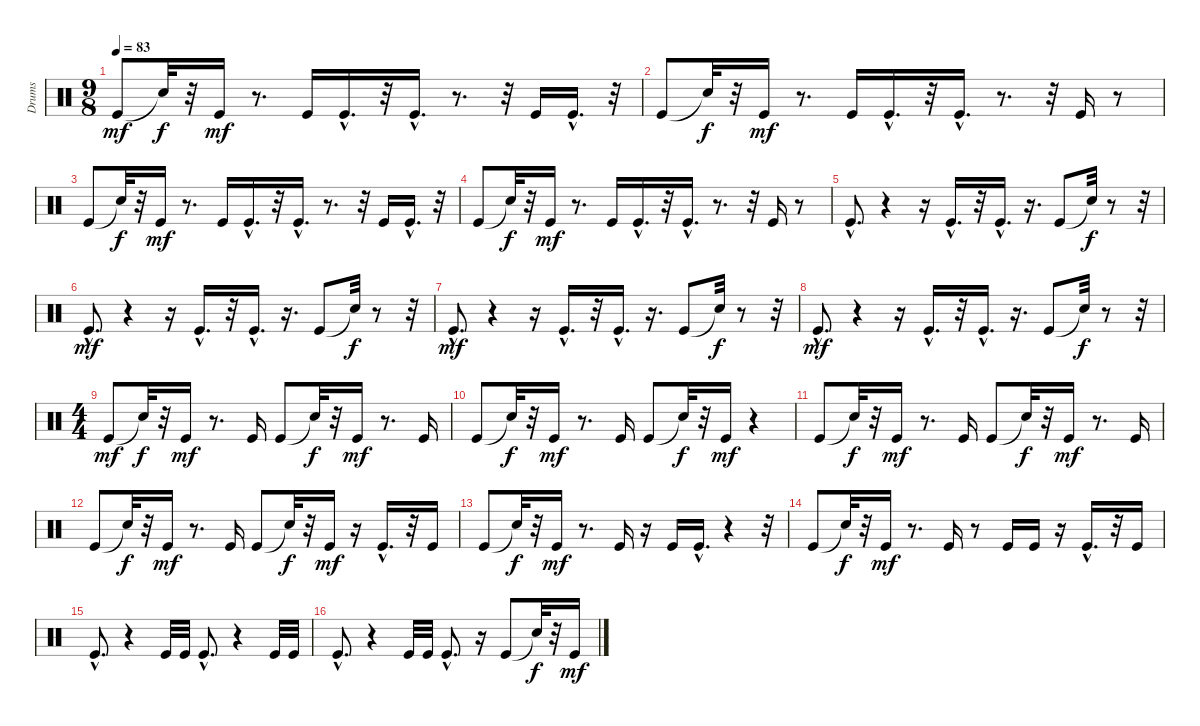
\track ("Drums" "Drums") {instrument percussion}
\staff {score}
\articulation defaults
\ts (9 8)
\tempo 83
\clef neutral
\ks c "Kick (hit)".8{dy mf} "Snare (hit)"{t}.32{dy f}
r.32 "Kick (hit)".16{dy mf} r.8{d} "Kick (hit)".16 "Kick (hit)"{hac}.16{d} r.32 "Kick (hit)"{hac}.16{d} r.8{d} r.32 "Kick (hit)".16 "Kick (hit)"{hac}.16{d} r.32 |
"Kick (hit)".8 "Snare (hit)"{t}.32{dy f} r.32 "Kick (hit)".16{dy mf} r.8{d} "Kick (hit)".16 "Kick (hit)"{hac}.16{d} r.32 "Kick (hit)"{hac}.16{d} r.8{d} r.32 "Kick (hit)".16 r.8 |
"Kick (hit)".8 "Snare (hit)"{t}.32{dy f} r.32 "Kick (hit)".16{dy mf} r.8{d} "Kick (hit)".16 "Kick (hit)"{hac}.16{d} r.32 "Kick (hit)"{hac}.16{d} r.8{d} r.32 "Kick (hit)".16 "Kick (hit)"{hac}.16{d} r.32 |
"Kick (hit)".8 "Snare (hit)"{t}.32{dy f} r.32 "Kick (hit)".16{dy mf} r.8{d} "Kick (hit)".16 "Kick (hit)"{hac}.16{d} r.32 "Kick (hit)"{hac}.16{d} r.8{d} r.32 "Kick (hit)".16 r.8 |
"Kick (hit)"{hac}.8{d} r.4 r.16 "Kick (hit)"{hac}.16{d} r.32 "Kick (hit)"{hac}.16{d} r.16{d} "Kick (hit)".8 "Snare (hit)"{t}.32{dy f} r.8 r.32 |
"Kick (hit)"{hac}.8{d dy mf} r.4 r.16 "Kick (hit)"{hac}.16{d} r.32 "Kick (hit)"{hac}.16{d} r.16{d} "Kick (hit)".8 "Snare (hit)"{t}.32{dy f} r.8 r.32 |
"Kick (hit)"{hac}.8{d dy mf} r.4 r.16 "Kick (hit)"{hac}.16{d} r.32 "Kick (hit)"{hac}.16{d} r.16{d} "Kick (hit)".8 "Snare (hit)"{t}.32{dy f} r.8 r.32 |
"Kick (hit)"{hac}.8{d dy mf} r.4 r.16 "Kick (hit)"{hac}.16{d} r.32 "Kick (hit)"{hac}.16{d} r.16{d} "Kick (hit)".8 "Snare (hit)"{t}.32{dy f} r.8 r.32 |
\ts (4 4)
"Kick (hit)".8{dy mf} "Snare (hit)"{t}.32{dy f} r.32 "Kick (hit)".16{dy mf} r.8{d} "Kick (hit)".16 "Kick (hit)".8 "Snare (hit)"{t}.32{dy f} r.32 "Kick (hit)".16{dy mf} r.8{d} "Kick (hit)".16 |
"Kick (hit)".8 "Snare (hit)"{t}.32{dy f} r.32 "Kick (hit)".16{dy mf} r.8{d} "Kick (hit)".16 "Kick (hit)".8 "Snare (hit)"{t}.32{dy f} r.32 "Kick (hit)".16{dy mf} r.4 |
"Kick (hit)".8 "Snare (hit)"{t}.32{dy f} r.32 "Kick (hit)".16{dy mf} r.8{d} "Kick (hit)".16 "Kick (hit)".8 "Snare (hit)"{t}.32{dy f} r.32 "Kick (hit)".16{dy mf} r.8{d} "Kick (hit)".16 |
"Kick (hit)".8 "Snare (hit)"{t}.32{dy f} r.32 "Kick (hit)".16{dy mf} r.8{d} "Kick (hit)".16 "Kick (hit)".8 "Snare (hit)"{t}.32{dy f} r.32 "Kick (hit)".16{dy mf} r.16 "Kick (hit)"{hac}.16{d} r.32 "Kick (hit)".16 |
"Kick (hit)".8 "Snare (hit)"{t}.32{dy f} r.32 "Kick (hit)".16{dy mf} r.8{d} "Kick (hit)".16 r.16 "Kick (hit)".16 "Kick (hit)"{hac}.16{d} r.4 r.32 |
"Kick (hit)".8 "Snare (hit)"{t}.32{dy f} r.32 "Kick (hit)".16{dy mf} r.8{d} "Kick (hit)".16 r.8 "Kick (hit)".16 "Kick (hit)".16 r.16 "Kick (hit)"{hac}.16{d} r.32 "Kick (hit)".16 |
"Kick (hit)"{hac}.8{d} r.4 "Kick (hit)".32 "Kick (hit)".32 "Kick (hit)"{hac}.8{d} r.4 "Kick (hit)".32 "Kick (hit)".32 |
"Kick (hit)"{hac}.8{d} r.4 "Kick (hit)".32 "Kick (hit)".32 "Kick (hit)"{hac}.8{d} r.16 "Kick (hit)".8 "Snare (hit)"{t}.32{dy f} r.32 "Kick (hit)".16{dy mf}
